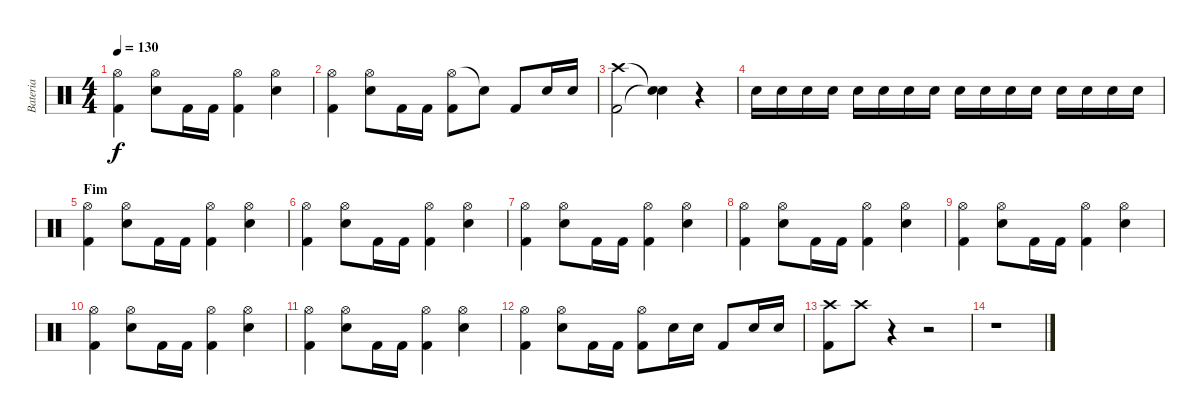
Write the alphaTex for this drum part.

\track ("Bateria" "Bateria") {instrument percussion}
\staff {score}
\articulation defaults
\ts (4 4)
\tempo 130
\clef neutral
\ks c
("Hi-Hat (open)" "Kick (hit) 2").4{dy f} ("Hi-Hat (open)" "Electric Snare (hit)").8 "Kick (hit) 2".16 "Kick (hit) 2".16 ("Hi-Hat (open)" "Kick (hit) 2").4 ("Hi-Hat (open)" "Electric Snare (hit)").4 |
("Hi-Hat (open)" "Kick (hit) 2").4 ("Hi-Hat (open)" "Electric Snare (hit)").8 "Kick (hit) 2".16 "Kick (hit) 2".16 ("Hi-Hat (open)" "Kick (hit) 2").8 "Snare (hit)"{t}.8 "Kick (hit) 2".8 "Electric Snare (hit)".16 "Electric Snare (hit)".16 |
("Crash high (hit)" "Kick (hit) 2").2 ("Snare (hit)"{t} "Snare (hit)"{t}).4 r.4{volume 0} |
"Electric Snare (hit)".16{volume 15} "Electric Snare (hit)".16 "Electric Snare (hit)".16 "Electric Snare (hit)".16 "Electric Snare (hit)".16 "Electric Snare (hit)".16 "Electric Snare (hit)".16 "Electric Snare (hit)".16 "Electric Snare (hit)".16 "Electric Snare (hit)".16 "Electric Snare (hit)".16 "Electric Snare (hit)".16 "Electric Snare (hit)".16 "Electric Snare (hit)".16 "Electric Snare (hit)".16 "Electric Snare (hit)".16 |
\section ("" "Fim")
("Hi-Hat (open)" "Kick (hit) 2").4 ("Hi-Hat (open)" "Electric Snare (hit)").8 "Kick (hit) 2".16 "Kick (hit) 2".16 ("Hi-Hat (open)" "Kick (hit) 2").4 ("Hi-Hat (open)" "Electric Snare (hit)").4 |
("Hi-Hat (open)" "Kick (hit) 2").4 ("Hi-Hat (open)" "Electric Snare (hit)").8 "Kick (hit) 2".16 "Kick (hit) 2".16 ("Hi-Hat (open)" "Kick (hit) 2").4 ("Hi-Hat (open)" "Electric Snare (hit)").4 |
("Hi-Hat (open)" "Kick (hit) 2").4 ("Hi-Hat (open)" "Electric Snare (hit)").8 "Kick (hit) 2".16 "Kick (hit) 2".16 ("Hi-Hat (open)" "Kick (hit) 2").4 ("Hi-Hat (open)" "Electric Snare (hit)").4 |
("Hi-Hat (open)" "Kick (hit) 2").4 ("Hi-Hat (open)" "Electric Snare (hit)").8 "Kick (hit) 2".16 "Kick (hit) 2".16 ("Hi-Hat (open)" "Kick (hit) 2").4 ("Hi-Hat (open)" "Electric Snare (hit)").4 |
("Hi-Hat (open)" "Kick (hit) 2").4 ("Hi-Hat (open)" "Electric Snare (hit)").8 "Kick (hit) 2".16 "Kick (hit) 2".16 ("Hi-Hat (open)" "Kick (hit) 2").4 ("Hi-Hat (open)" "Electric Snare (hit)").4 |
("Hi-Hat (open)" "Kick (hit) 2").4 ("Hi-Hat (open)" "Electric Snare (hit)").8 "Kick (hit) 2".16 "Kick (hit) 2".16 ("Hi-Hat (open)" "Kick (hit) 2").4 ("Hi-Hat (open)" "Electric Snare (hit)").4 |
("Hi-Hat (open)" "Kick (hit) 2").4 ("Hi-Hat (open)" "Electric Snare (hit)").8 "Kick (hit) 2".16 "Kick (hit) 2".16 ("Hi-Hat (open)" "Kick (hit) 2").4 ("Hi-Hat (open)" "Electric Snare (hit)").4 |
("Hi-Hat (open)" "Kick (hit) 2").4 ("Hi-Hat (open)" "Electric Snare (hit)").8 "Kick (hit) 2".16 "Kick (hit) 2".16 ("Hi-Hat (open)" "Kick (hit) 2").8 "Electric Snare (hit)".16 "Electric Snare (hit)".16 "Kick (hit) 2".8 "Electric Snare (hit)".16 "Electric Snare (hit)".16 |
("Crash high (hit)" "Kick (hit) 2").8 "Crash high (hit)".8 r.4 r.2 |
r.1
